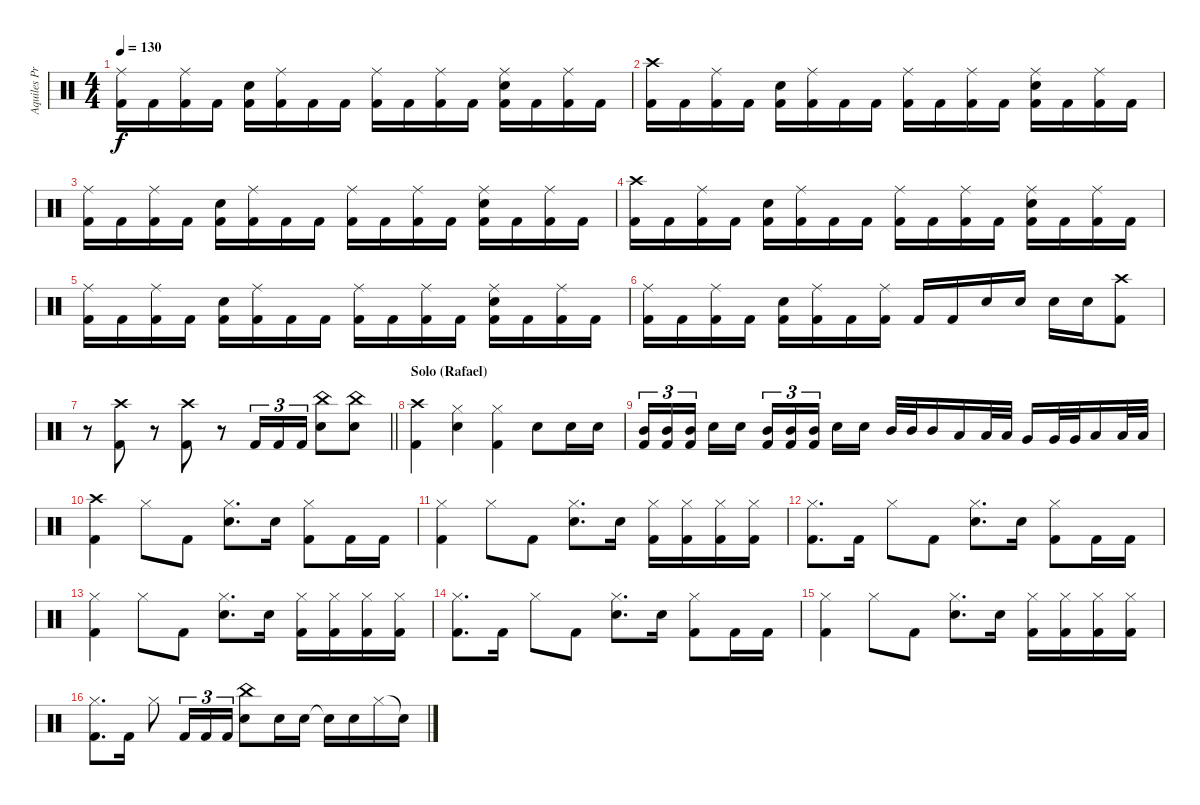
\track ("Aquiles Priester" "Aquiles Pr") {instrument percussion}
\staff {score}
\articulation defaults
\ts (4 4)
\tempo 130
\clef neutral
\ks c
("Ride (middle)" "Kick (hit) 2").16{dy f} "Kick (hit) 2".16 ("Ride (middle)" "Kick (hit) 2").16 "Kick (hit) 2".16 ("Electric Snare (hit)" "Kick (hit) 2").16 ("Ride (middle)" "Kick (hit) 2").16 "Kick (hit) 2".16 "Kick (hit) 2".16 ("Ride (middle)" "Kick (hit) 2").16 "Kick (hit) 2".16 ("Ride (middle)" "Kick (hit) 2").16 "Kick (hit) 2".16 ("Ride (middle)" "Electric Snare (hit)" "Kick (hit) 2").16 "Kick (hit) 2".16 ("Ride (middle)" "Kick (hit) 2").16 "Kick (hit) 2".16 |
("Crash high (hit)" "Kick (hit) 2").16 "Kick (hit) 2".16 ("Ride (middle)" "Kick (hit) 2").16 "Kick (hit) 2".16 ("Electric Snare (hit)" "Kick (hit) 2").16 ("Ride (middle)" "Kick (hit) 2").16 "Kick (hit) 2".16 "Kick (hit) 2".16 ("Ride (middle)" "Kick (hit) 2").16 "Kick (hit) 2".16 ("Ride (middle)" "Kick (hit) 2").16 "Kick (hit) 2".16 ("Ride (middle)" "Electric Snare (hit)" "Kick (hit) 2").16 "Kick (hit) 2".16 ("Ride (middle)" "Kick (hit) 2").16 "Kick (hit) 2".16 |
("Ride (middle)" "Kick (hit) 2").16 "Kick (hit) 2".16 ("Ride (middle)" "Kick (hit) 2").16 "Kick (hit) 2".16 ("Electric Snare (hit)" "Kick (hit) 2").16 ("Ride (middle)" "Kick (hit) 2").16 "Kick (hit) 2".16 "Kick (hit) 2".16 ("Ride (middle)" "Kick (hit) 2").16 "Kick (hit) 2".16 ("Ride (middle)" "Kick (hit) 2").16 "Kick (hit) 2".16 ("Ride (middle)" "Electric Snare (hit)" "Kick (hit) 2").16 "Kick (hit) 2".16 ("Ride (middle)" "Kick (hit) 2").16 "Kick (hit) 2".16 |
("Crash high (hit)" "Kick (hit) 2").16 "Kick (hit) 2".16 ("Ride (middle)" "Kick (hit) 2").16 "Kick (hit) 2".16 ("Electric Snare (hit)" "Kick (hit) 2").16 ("Ride (middle)" "Kick (hit) 2").16 "Kick (hit) 2".16 "Kick (hit) 2".16 ("Ride (middle)" "Kick (hit) 2").16 "Kick (hit) 2".16 ("Ride (middle)" "Kick (hit) 2").16 "Kick (hit) 2".16 ("Ride (middle)" "Electric Snare (hit)" "Kick (hit) 2").16 "Kick (hit) 2".16 ("Ride (middle)" "Kick (hit) 2").16 "Kick (hit) 2".16 |
("Ride (middle)" "Kick (hit) 2").16 "Kick (hit) 2".16 ("Ride (middle)" "Kick (hit) 2").16 "Kick (hit) 2".16 ("Electric Snare (hit)" "Kick (hit) 2").16 ("Ride (middle)" "Kick (hit) 2").16 "Kick (hit) 2".16 "Kick (hit) 2".16 ("Ride (middle)" "Kick (hit) 2").16 "Kick (hit) 2".16 ("Ride (middle)" "Kick (hit) 2").16 "Kick (hit) 2".16 ("Ride (middle)" "Electric Snare (hit)" "Kick (hit) 2").16 "Kick (hit) 2".16 ("Ride (middle)" "Kick (hit) 2").16 "Kick (hit) 2".16 |
("Ride (middle)" "Kick (hit) 2").16 "Kick (hit) 2".16 ("Ride (middle)" "Kick (hit) 2").16 "Kick (hit) 2".16 ("Electric Snare (hit)" "Kick (hit) 2").16 ("Ride (middle)" "Kick (hit) 2").16 "Kick (hit) 2".16 ("Ride (middle)" "Kick (hit) 2").16 "Kick (hit) 2".16 "Kick (hit) 2".16 "Electric Snare (hit)".16 "Electric Snare (hit)".16 "Electric Snare (hit)".16 "Electric Snare (hit)".16 ("Crash high (hit)" "Kick (hit) 2").8 |
\barLineRight lightlight
r.8 ("Crash high (hit)" "Kick (hit) 2").8 r.8 ("Crash high (hit)" "Kick (hit) 2").8 r.8 "Kick (hit) 2".16{tu (3 2)} "Kick (hit) 2".16{tu (3 2)} "Kick (hit) 2".16{tu (3 2)} ("China (hit)" "Electric Snare (hit)").8 ("China (hit)" "Electric Snare (hit)").8 |
\section ("" "Solo (Rafael)")
("Crash high (hit)" "Kick (hit) 2").4 ("Hi-Hat (closed)" "Electric Snare (hit)").4 ("Hi-Hat (closed)" "Kick (hit) 2").4 "Electric Snare (hit)".8 "Electric Snare (hit)".16 "Electric Snare (hit)".16 |
("Mid Tom (hit)" "Kick (hit) 2").16{tu (3 2)} ("Mid Tom (hit)" "Kick (hit) 2").16{tu (3 2)} ("Mid Tom (hit)" "Kick (hit) 2").16{tu (3 2) beam splitsecondary} "Electric Snare (hit)".16 "Electric Snare (hit)".16 ("Mid Tom (hit)" "Kick (hit) 2").16{tu (3 2)} ("Mid Tom (hit)" "Kick (hit) 2").16{tu (3 2)} ("Mid Tom (hit)" "Kick (hit) 2").16{tu (3 2) beam splitsecondary} "Electric Snare (hit)".16 "Electric Snare (hit)".16 "Mid Tom (hit)".32 "Mid Tom (hit)".32 "Mid Tom (hit)".16 "Low Tom (hit)".16 "Low Tom (hit)".32 "Low Tom (hit)".32 "Very Low Tom (hit)".16 "Very Low Tom (hit)".32 "Very Low Tom (hit)".32 "Low Floor Tom (hit)".16 "Low Floor Tom (hit)".32 "Low Floor Tom (hit)".32 |
("Crash high (hit)" "Kick (hit) 2").4 "Hi-Hat (closed)".8 "Kick (hit) 2".8 ("Hi-Hat (closed)" "Electric Snare (hit)").8{d} "Electric Snare (hit)".16 ("Hi-Hat (closed)" "Kick (hit) 2").8 "Kick (hit) 2".16 "Kick (hit) 2".16 |
("Hi-Hat (closed)" "Kick (hit) 2").4 "Hi-Hat (closed)".8 "Kick (hit) 2".8 ("Hi-Hat (closed)" "Electric Snare (hit)").8{d} "Electric Snare (hit)".16 ("Hi-Hat (closed)" "Kick (hit) 2").16 ("Hi-Hat (closed)" "Kick (hit) 2").16 ("Hi-Hat (closed)" "Kick (hit) 2").16 ("Hi-Hat (closed)" "Kick (hit) 2").16 |
("Hi-Hat (closed)" "Kick (hit) 2").8{d} "Kick (hit) 2".16 "Hi-Hat (closed)".8 "Kick (hit) 2".8 ("Hi-Hat (closed)" "Electric Snare (hit)").8{d} "Electric Snare (hit)".16 ("Hi-Hat (closed)" "Kick (hit) 2").8 "Kick (hit) 2".16 "Kick (hit) 2".16 |
("Hi-Hat (closed)" "Kick (hit) 2").4 "Hi-Hat (closed)".8 "Kick (hit) 2".8 ("Hi-Hat (closed)" "Electric Snare (hit)").8{d} "Electric Snare (hit)".16 ("Hi-Hat (closed)" "Kick (hit) 2").16 ("Hi-Hat (closed)" "Kick (hit) 2").16 ("Hi-Hat (closed)" "Kick (hit) 2").16 ("Hi-Hat (closed)" "Kick (hit) 2").16 |
("Hi-Hat (closed)" "Kick (hit) 2").8{d} "Kick (hit) 2".16 "Hi-Hat (closed)".8 "Kick (hit) 2".8 ("Hi-Hat (closed)" "Electric Snare (hit)").8{d} "Electric Snare (hit)".16 ("Hi-Hat (closed)" "Kick (hit) 2").8 "Kick (hit) 2".16 "Kick (hit) 2".16 |
("Hi-Hat (closed)" "Kick (hit) 2").4 "Hi-Hat (closed)".8 "Kick (hit) 2".8 ("Hi-Hat (closed)" "Electric Snare (hit)").8{d} "Electric Snare (hit)".16 ("Hi-Hat (closed)" "Kick (hit) 2").16 ("Hi-Hat (closed)" "Kick (hit) 2").16 ("Hi-Hat (closed)" "Kick (hit) 2").16 ("Hi-Hat (closed)" "Kick (hit) 2").16 |
("Hi-Hat (closed)" "Kick (hit) 2").8{d} "Kick (hit) 2".16 "Hi-Hat (closed)".8 "Kick (hit) 2".16{tu (3 2)} "Kick (hit) 2".16{tu (3 2)} "Kick (hit) 2".16{tu (3 2)} ("China (hit)" "Electric Snare (hit)").8 "Electric Snare (hit)".16 "Electric Snare (hit)".16 "Snare (hit)"{t}.16 "Electric Snare (hit)".16 "Hi-Hat (closed)".16 "Snare (hit)"{t}.16
